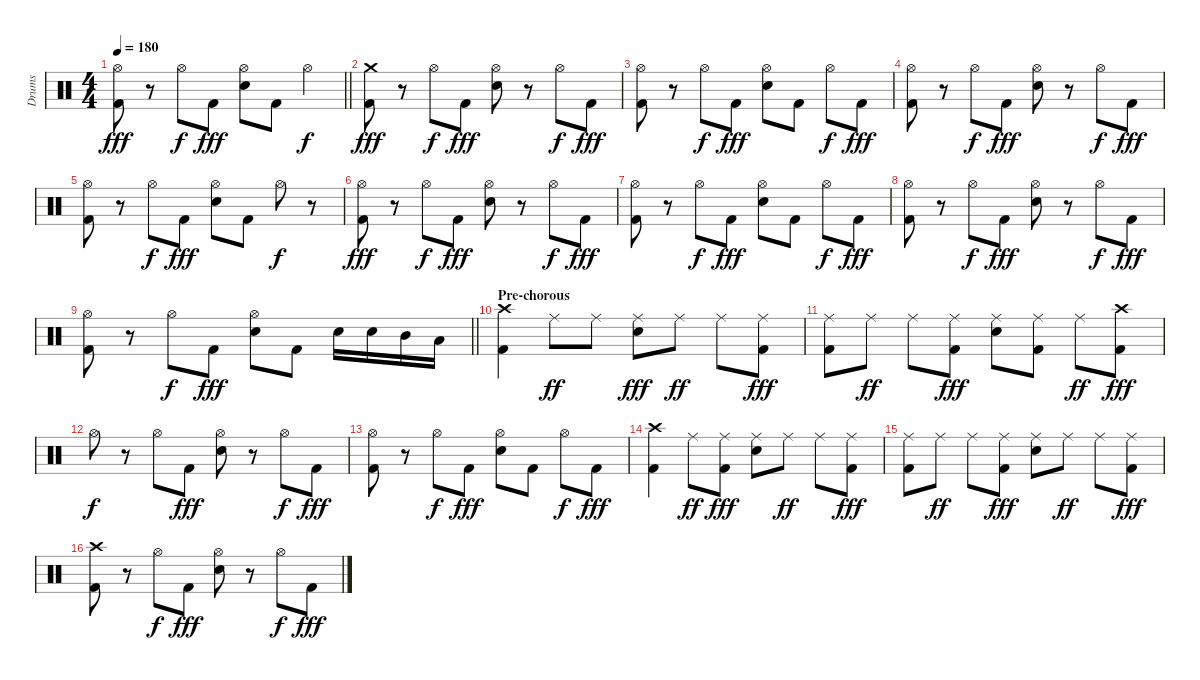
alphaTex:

\track ("Drums" "Drums") {instrument percussion}
\staff {score}
\articulation defaults
\ts (4 4)
\tempo 180
\clef neutral
\barLineRight lightlight
\ks c
("Hi-Hat (open)" "Kick (hit) 2").8{dy fff} r.8 "Hi-Hat (open)".8{dy f} "Kick (hit) 2".8{dy fff} ("Hi-Hat (open)" "Electric Snare (hit)").8 "Kick (hit) 2".8 "Hi-Hat (open)".4{dy f} |
\section ("" "")
("Crash medium (hit)" "Kick (hit) 2").8{dy fff} r.8 "Hi-Hat (open)".8{dy f} "Kick (hit) 2".8{dy fff} ("Hi-Hat (open)" "Electric Snare (hit)").8 r.8 "Hi-Hat (open)".8{dy f} "Kick (hit) 2".8{dy fff} |
("Hi-Hat (open)" "Kick (hit) 2").8 r.8 "Hi-Hat (open)".8{dy f} "Kick (hit) 2".8{dy fff} ("Hi-Hat (open)" "Electric Snare (hit)").8 "Kick (hit) 2".8 "Hi-Hat (open)".8{dy f} "Kick (hit) 2".8{dy fff} |
("Hi-Hat (open)" "Kick (hit) 2").8 r.8 "Hi-Hat (open)".8{dy f} "Kick (hit) 2".8{dy fff} ("Hi-Hat (open)" "Electric Snare (hit)").8 r.8 "Hi-Hat (open)".8{dy f} "Kick (hit) 2".8{dy fff} |
("Hi-Hat (open)" "Kick (hit) 2").8 r.8 "Hi-Hat (open)".8{dy f} "Kick (hit) 2".8{dy fff} ("Hi-Hat (open)" "Electric Snare (hit)").8 "Kick (hit) 2".8 "Hi-Hat (open)".8{dy f} r.8 |
("Hi-Hat (open)" "Kick (hit) 2").8{dy fff} r.8 "Hi-Hat (open)".8{dy f} "Kick (hit) 2".8{dy fff} ("Hi-Hat (open)" "Electric Snare (hit)").8 r.8 "Hi-Hat (open)".8{dy f} "Kick (hit) 2".8{dy fff} |
("Hi-Hat (open)" "Kick (hit) 2").8 r.8 "Hi-Hat (open)".8{dy f} "Kick (hit) 2".8{dy fff} ("Hi-Hat (open)" "Electric Snare (hit)").8 "Kick (hit) 2".8 "Hi-Hat (open)".8{dy f} "Kick (hit) 2".8{dy fff} |
("Hi-Hat (open)" "Kick (hit) 2").8 r.8 "Hi-Hat (open)".8{dy f} "Kick (hit) 2".8{dy fff} ("Hi-Hat (open)" "Electric Snare (hit)").8 r.8 "Hi-Hat (open)".8{dy f} "Kick (hit) 2".8{dy fff} |
\barLineRight lightlight
("Hi-Hat (open)" "Kick (hit) 2").8 r.8 "Hi-Hat (open)".8{dy f} "Kick (hit) 2".8{dy fff} ("Hi-Hat (open)" "Electric Snare (hit)").8 "Kick (hit) 2".8 "Electric Snare (hit)".16 "Electric Snare (hit)".16 "Mid Tom (hit)".16 "Low Tom (hit)".16 |
\section ("" "Pre-chorous")
("Crash high (hit)" "Kick (hit) 2").4 "Ride (middle)".8{dy ff} "Ride (middle)".8 ("Ride (middle)" "Electric Snare (hit)").8{dy fff} "Ride (middle)".8{dy ff} "Ride (middle)".8 ("Ride (middle)" "Kick (hit) 2").8{dy fff} |
("Ride (middle)" "Kick (hit) 2").8 "Ride (middle)".8{dy ff} "Ride (middle)".8 ("Ride (middle)" "Kick (hit) 2").8{dy fff} ("Ride (middle)" "Electric Snare (hit)").8 ("Ride (middle)" "Kick (hit) 2").8 "Ride (middle)".8{dy ff} ("Crash high (hit)" "Kick (hit) 2").8{dy fff} |
"Hi-Hat (open)".8{dy f} r.8 "Hi-Hat (open)".8 "Kick (hit) 2".8{dy fff} ("Hi-Hat (open)" "Electric Snare (hit)").8 r.8 "Hi-Hat (open)".8{dy f} "Kick (hit) 2".8{dy fff} |
("Hi-Hat (open)" "Kick (hit) 2").8 r.8 "Hi-Hat (open)".8{dy f} "Kick (hit) 2".8{dy fff} ("Hi-Hat (open)" "Electric Snare (hit)").8 "Kick (hit) 2".8 "Hi-Hat (open)".8{dy f} "Kick (hit) 2".8{dy fff} |
("Crash high (hit)" "Kick (hit) 2").4 "Ride (middle)".8{dy ff} ("Ride (middle)" "Kick (hit) 2").8{dy fff} ("Ride (middle)" "Electric Snare (hit)").8 "Ride (middle)".8{dy ff} "Ride (middle)".8 ("Ride (middle)" "Kick (hit) 2").8{dy fff} |
("Ride (middle)" "Kick (hit) 2").8 "Ride (middle)".8{dy ff} "Ride (middle)".8 ("Ride (middle)" "Kick (hit) 2").8{dy fff} ("Ride (middle)" "Electric Snare (hit)").8 "Ride (middle)".8{dy ff} "Ride (middle)".8 ("Ride (middle)" "Kick (hit) 2").8{dy fff} |
("Crash high (hit)" "Kick (hit) 2").8 r.8 "Hi-Hat (open)".8{dy f} "Kick (hit) 2".8{dy fff} ("Hi-Hat (open)" "Electric Snare (hit)").8 r.8 "Hi-Hat (open)".8{dy f} "Kick (hit) 2".8{dy fff}
